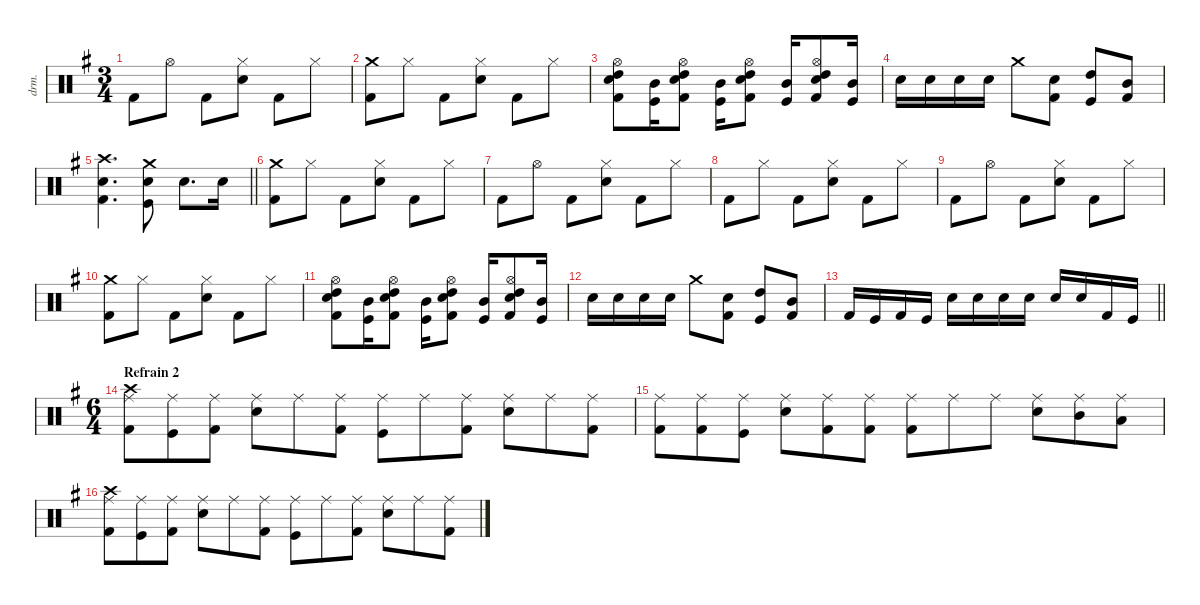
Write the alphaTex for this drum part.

\defaultSystemsLayout 4
\hideDynamics
\bracketExtendMode groupsimilarinstruments
\otherSystemsTrackNameOrientation horizontal
\track ("Drums" "drm.") {defaultSystemsLayout 4 instrument percussion}
\staff {score}
\articulation defaults
\ts (3 4)
\tempo (120 hide)
\clef neutral
\ks eminor "Kick (hit) 2"{acc forcenatural}.8{dy f beam Down} "Hi-Hat (open)"{acc forcenatural}.8{beam Down} "Kick (hit) 2"{acc forcenatural}.8{beam Down}
("Hi-Hat (closed)"{acc forcenatural} "Snare (hit) 2"{acc forcenatural}).8{beam Down} "Kick (hit) 2"{acc forcenatural}.8{beam Down} "Hi-Hat (closed)"{acc forcenatural}.8{beam Down} |
("Crash medium (hit)"{acc forcenatural} "Kick (hit) 2"{acc forcenatural}).8{beam Down} "Hi-Hat (closed)"{acc forcenatural}.8{beam Down} "Kick (hit) 2"{acc forcenatural}.8{beam Down} ("Hi-Hat (closed)"{acc forcenatural} "Snare (hit) 2"{acc forcenatural}).8{beam Down} "Kick (hit) 2"{acc forcenatural}.8{beam Down} "Hi-Hat (closed)"{acc forcenatural}.8{beam Down} |
("Hi-Hat (open)"{acc forcenatural} "High Tom (hit)"{acc forcenatural} "Snare (hit) 2"{acc forcenatural} "Kick (hit) 2"{acc forcenatural}).8{beam Down} ("Mid Tom (hit)"{acc forcenatural} "Kick (hit)"{acc forcenatural}).16{beam Down} ("Hi-Hat (open)"{acc forcenatural} "High Tom (hit)"{acc forcenatural} "Snare (hit) 2"{acc forcenatural} "Kick (hit) 2"{acc forcenatural}).8{beam Down} ("Mid Tom (hit)"{acc forcenatural} "Kick (hit)"{acc forcenatural}).16{beam Down} ("Hi-Hat (open)"{acc forcenatural} "High Tom (hit)"{acc forcenatural} "Snare (hit) 2"{acc forcenatural} "Kick (hit) 2"{acc forcenatural}).8{beam Down} ("Mid Tom (hit)"{acc forcenatural} "Kick (hit)"{acc forcenatural}).16{beam Up} ("Hi-Hat (open)"{acc forcenatural} "High Tom (hit)"{acc forcenatural} "Snare (hit) 2"{acc forcenatural} "Kick (hit) 2"{acc forcenatural}).8{beam Up} ("Mid Tom (hit)"{acc forcenatural} "Kick (hit)"{acc forcenatural}).16{beam Up} |
"Snare (hit) 2"{acc forcenatural}.16{beam Down} "Snare (hit) 2"{acc forcenatural}.16{beam Down} "Snare (hit) 2"{acc forcenatural}.16{beam Down} "Snare (hit) 2"{acc forcenatural}.16{beam Down} "Crash medium (hit)"{acc forcenatural}.8{beam Down} ("Snare (hit) 2"{acc forcenatural} "Kick (hit) 2"{acc forcenatural}).8{beam Down} ("High Tom (hit)"{acc forcenatural} "Kick (hit)"{acc forcenatural}).8{beam Up} ("Mid Tom (hit)"{acc forcenatural} "Kick (hit) 2"{acc forcenatural}).8{beam Up} |
\barLineRight lightlight
("Crash high (hit)"{acc forcenatural} "Snare (hit) 2"{acc forcenatural} "Kick (hit) 2"{acc forcenatural}).4{d beam Down} ("Crash medium (hit)"{acc forcenatural} "Snare (hit) 2"{acc forcenatural} "Kick (hit)"{acc forcenatural}).8{beam Down} "Snare (hit) 2"{acc forcenatural}.8{d beam Down} "Snare (hit) 2"{acc forcenatural}.16{beam Down} |
("Crash medium (hit)"{acc forcenatural} "Kick (hit) 2"{acc forcenatural}).8{beam Down} "Hi-Hat (closed)"{acc forcenatural}.8{beam Down} "Kick (hit) 2"{acc forcenatural}.8{beam Down} ("Hi-Hat (closed)"{acc forcenatural} "Snare (hit) 2"{acc forcenatural}).8{beam Down} "Kick (hit) 2"{acc forcenatural}.8{beam Down} "Hi-Hat (closed)"{acc forcenatural}.8{beam Down} |
"Kick (hit) 2"{acc forcenatural}.8{beam Down} "Hi-Hat (open)"{acc forcenatural}.8{beam Down} "Kick (hit) 2"{acc forcenatural}.8{beam Down} ("Hi-Hat (closed)"{acc forcenatural} "Snare (hit) 2"{acc forcenatural}).8{beam Down} "Kick (hit) 2"{acc forcenatural}.8{beam Down} "Hi-Hat (closed)"{acc forcenatural}.8{beam Down} |
"Kick (hit) 2"{acc forcenatural}.8{beam Down} "Hi-Hat (closed)"{acc forcenatural}.8{beam Down} "Kick (hit) 2"{acc forcenatural}.8{beam Down} ("Hi-Hat (closed)"{acc forcenatural} "Snare (hit) 2"{acc forcenatural}).8{beam Down} "Kick (hit) 2"{acc forcenatural}.8{beam Down} "Hi-Hat (closed)"{acc forcenatural}.8{beam Down} |
"Kick (hit) 2"{acc forcenatural}.8{beam Down} "Hi-Hat (open)"{acc forcenatural}.8{beam Down} "Kick (hit) 2"{acc forcenatural}.8{beam Down} ("Hi-Hat (closed)"{acc forcenatural} "Snare (hit) 2"{acc forcenatural}).8{beam Down} "Kick (hit) 2"{acc forcenatural}.8{beam Down} "Hi-Hat (closed)"{acc forcenatural}.8{beam Down} |
("Crash medium (hit)"{acc forcenatural} "Kick (hit) 2"{acc forcenatural}).8{beam Down} "Hi-Hat (closed)"{acc forcenatural}.8{beam Down} "Kick (hit) 2"{acc forcenatural}.8{beam Down} ("Hi-Hat (closed)"{acc forcenatural} "Snare (hit) 2"{acc forcenatural}).8{beam Down} "Kick (hit) 2"{acc forcenatural}.8{beam Down} "Hi-Hat (closed)"{acc forcenatural}.8{beam Down} |
("Hi-Hat (open)"{acc forcenatural} "High Tom (hit)"{acc forcenatural} "Snare (hit) 2"{acc forcenatural} "Kick (hit) 2"{acc forcenatural}).8{beam Down} ("Mid Tom (hit)"{acc forcenatural} "Kick (hit)"{acc forcenatural}).16{beam Down} ("Hi-Hat (open)"{acc forcenatural} "High Tom (hit)"{acc forcenatural} "Snare (hit) 2"{acc forcenatural} "Kick (hit) 2"{acc forcenatural}).8{beam Down} ("Mid Tom (hit)"{acc forcenatural} "Kick (hit)"{acc forcenatural}).16{beam Down} ("Hi-Hat (open)"{acc forcenatural} "High Tom (hit)"{acc forcenatural} "Snare (hit) 2"{acc forcenatural} "Kick (hit) 2"{acc forcenatural}).8{beam Down} ("Mid Tom (hit)"{acc forcenatural} "Kick (hit)"{acc forcenatural}).16{beam Up} ("Hi-Hat (open)"{acc forcenatural} "High Tom (hit)"{acc forcenatural} "Snare (hit) 2"{acc forcenatural} "Kick (hit) 2"{acc forcenatural}).8{beam Up} ("Mid Tom (hit)"{acc forcenatural} "Kick (hit)"{acc forcenatural}).16{beam Up} |
"Snare (hit) 2"{acc forcenatural}.16{beam Down} "Snare (hit) 2"{acc forcenatural}.16{beam Down} "Snare (hit) 2"{acc forcenatural}.16{beam Down} "Snare (hit) 2"{acc forcenatural}.16{beam Down} "Crash medium (hit)"{acc forcenatural}.8{beam Down} ("Snare (hit) 2"{acc forcenatural} "Kick (hit) 2"{acc forcenatural}).8{beam Down} ("High Tom (hit)"{acc forcenatural} "Kick (hit)"{acc forcenatural}).8{beam Up} ("Mid Tom (hit)"{acc forcenatural} "Kick (hit) 2"{acc forcenatural}).8{beam Up} |
\barLineRight lightlight "Kick (hit) 2"{acc forcenatural}.16{beam Up} "Kick (hit)"{acc forcenatural}.16{beam Up} "Kick (hit) 2"{acc forcenatural}.16{beam Up} "Kick (hit)"{acc forcenatural}.16{beam Up} "Snare (hit) 2"{acc forcenatural}.16{beam Down} "Snare (hit) 2"{acc forcenatural}.16{beam Down} "Snare (hit) 2"{acc forcenatural}.16{beam Down} "Snare (hit) 2"{acc forcenatural}.16{beam Down} "Snare (hit) 2"{acc forcenatural}.16{beam Up} "Snare (hit) 2"{acc forcenatural}.16{beam Up} "Kick (hit) 2"{acc forcenatural}.16{beam Up} "Kick (hit)"{acc forcenatural}.16{beam Up}
|
\ts (6 4)
\beaming (8 3 3 3 3)
\section ("" "Refrain 2")
("Crash high (hit)"{acc forcenatural} "Ride (middle)"{acc forcenatural} "Kick (hit) 2"{acc forcenatural}).8{beam Down} ("Ride (middle)"{acc forcenatural} "Kick (hit)"{acc forcenatural}).8{beam Down} ("Ride (middle)"{acc forcenatural} "Kick (hit) 2"{acc forcenatural}).8{beam Down} ("Ride (middle)"{acc forcenatural} "Snare (hit) 2"{acc forcenatural}).8{beam Down} "Ride (middle)"{acc forcenatural}.8{beam Down} ("Ride (middle)"{acc forcenatural} "Kick (hit) 2"{acc forcenatural}).8{beam Down} ("Ride (middle)"{acc forcenatural} "Kick (hit)"{acc forcenatural}).8{beam Down} "Ride (middle)"{acc forcenatural}.8{beam Down} ("Ride (middle)"{acc forcenatural} "Kick (hit) 2"{acc forcenatural}).8{beam Down} ("Ride (middle)"{acc forcenatural} "Snare (hit) 2"{acc forcenatural}).8{beam Down} "Ride (middle)"{acc forcenatural}.8{beam Down} ("Ride (middle)"{acc forcenatural} "Kick (hit) 2"{acc forcenatural}).8{beam Down} |
("Ride (middle)"{acc forcenatural} "Kick (hit) 2"{acc forcenatural}).8{beam Down} ("Ride (middle)"{acc forcenatural} "Kick (hit) 2"{acc forcenatural}).8{beam Down} ("Ride (middle)"{acc forcenatural} "Kick (hit)"{acc forcenatural}).8{beam Down} ("Ride (middle)"{acc forcenatural} "Snare (hit) 2"{acc forcenatural}).8{beam Down} ("Ride (middle)"{acc forcenatural} "Kick (hit) 2"{acc forcenatural}).8{beam Down} ("Ride (middle)"{acc forcenatural} "Kick (hit) 2"{acc forcenatural}).8{beam Down} ("Ride (middle)"{acc forcenatural} "Kick (hit) 2"{acc forcenatural}).8{beam Down} "Ride (middle)"{acc forcenatural}.8{beam Down} "Ride (middle)"{acc forcenatural}.8{beam Down} ("Ride (middle)"{acc forcenatural} "Snare (hit) 2"{acc forcenatural}).8{beam Down} ("Ride (middle)"{acc forcenatural} "Mid Tom (hit)"{acc forcenatural}).8{beam Down} ("Ride (middle)"{acc forcenatural} "Low Tom (hit)"{acc forcenatural}).8{beam Down} |
("Crash high (hit)"{acc forcenatural} "Ride (middle)"{acc forcenatural} "Kick (hit) 2"{acc forcenatural}).8{beam Down} ("Ride (middle)"{acc forcenatural} "Kick (hit)"{acc forcenatural}).8{beam Down} ("Ride (middle)"{acc forcenatural} "Kick (hit) 2"{acc forcenatural}).8{beam Down} ("Ride (middle)"{acc forcenatural} "Snare (hit) 2"{acc forcenatural}).8{beam Down} "Ride (middle)"{acc forcenatural}.8{beam Down} ("Ride (middle)"{acc forcenatural} "Kick (hit) 2"{acc forcenatural}).8{beam Down} ("Ride (middle)"{acc forcenatural} "Kick (hit)"{acc forcenatural}).8{beam Down} "Ride (middle)"{acc forcenatural}.8{beam Down} ("Ride (middle)"{acc forcenatural} "Kick (hit) 2"{acc forcenatural}).8{beam Down} ("Ride (middle)"{acc forcenatural} "Snare (hit) 2"{acc forcenatural}).8{beam Down} "Ride (middle)"{acc forcenatural}.8{beam Down} ("Ride (middle)"{acc forcenatural} "Kick (hit) 2"{acc forcenatural}).8{beam Down}
